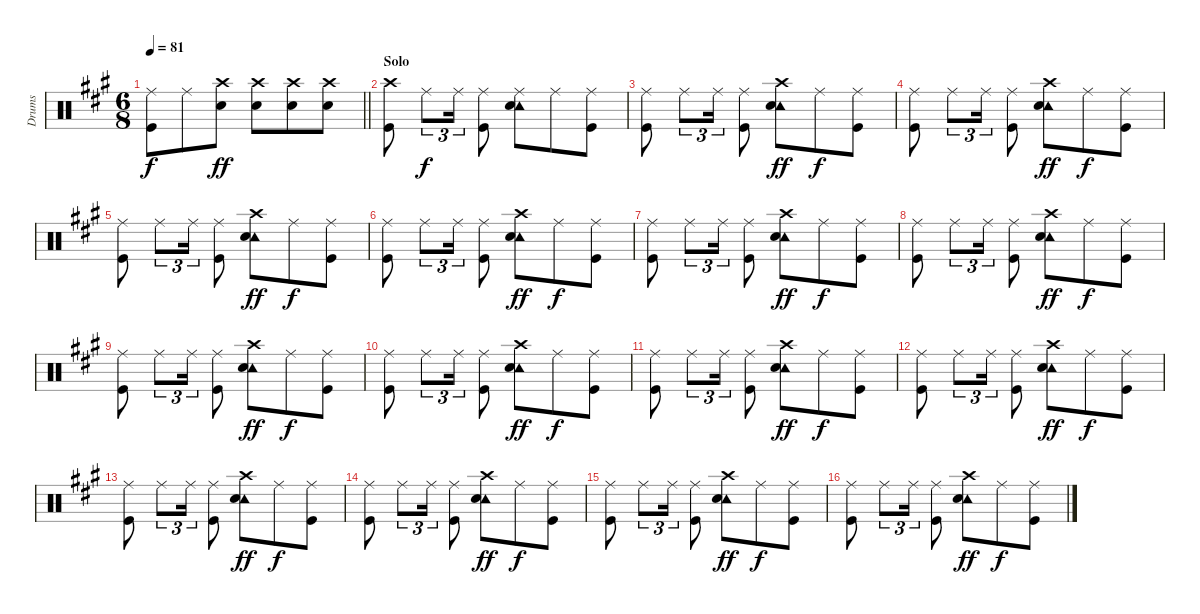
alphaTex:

\track ("Drums" "Drums") {instrument percussion}
\staff {score}
\articulation defaults
\ts (6 8)
\tempo 81
\clef neutral
\barLineRight lightlight
\ks a
("Ride (middle)" "Kick (hit)").8{dy f} "Ride (middle)".8 ("Crash high (hit)" "Snare (hit) 2").8{dy ff} ("Crash high (hit)" "Snare (hit) 2").8 ("Crash high (hit)" "Snare (hit) 2").8 ("Crash high (hit)" "Snare (hit) 2").8 |
\section ("" "Solo")
("Crash high (hit)" "Kick (hit)").8 "Ride (middle)".8{tu (3 2) dy f} "Ride (middle)".16{tu (3 2)} ("Ride (middle)" "Kick (hit)").8 ("Ride (middle)" "Tambourine (hit)" "Snare (hit) 2").8 "Ride (middle)".8 ("Ride (middle)" "Kick (hit)").8 |
("Ride (middle)" "Kick (hit)").8 "Ride (middle)".8{tu (3 2)} "Ride (middle)".16{tu (3 2)} ("Ride (middle)" "Kick (hit)").8 ("Crash high (hit)" "Tambourine (hit)" "Snare (hit) 2").8{dy ff} "Ride (middle)".8{dy f} ("Ride (middle)" "Kick (hit)").8 |
("Ride (middle)" "Kick (hit)").8 "Ride (middle)".8{tu (3 2)} "Ride (middle)".16{tu (3 2)} ("Ride (middle)" "Kick (hit)").8 ("Crash high (hit)" "Tambourine (hit)" "Snare (hit) 2").8{dy ff} "Ride (middle)".8{dy f} ("Ride (middle)" "Kick (hit)").8 |
("Ride (middle)" "Kick (hit)").8 "Ride (middle)".8{tu (3 2)} "Ride (middle)".16{tu (3 2)} ("Ride (middle)" "Kick (hit)").8 ("Crash high (hit)" "Tambourine (hit)" "Snare (hit) 2").8{dy ff} "Ride (middle)".8{dy f} ("Ride (middle)" "Kick (hit)").8 |
("Ride (middle)" "Kick (hit)").8 "Ride (middle)".8{tu (3 2)} "Ride (middle)".16{tu (3 2)} ("Ride (middle)" "Kick (hit)").8 ("Crash high (hit)" "Tambourine (hit)" "Snare (hit) 2").8{dy ff} "Ride (middle)".8{dy f} ("Ride (middle)" "Kick (hit)").8 |
("Ride (middle)" "Kick (hit)").8 "Ride (middle)".8{tu (3 2)} "Ride (middle)".16{tu (3 2)} ("Ride (middle)" "Kick (hit)").8 ("Crash high (hit)" "Tambourine (hit)" "Snare (hit) 2").8{dy ff} "Ride (middle)".8{dy f} ("Ride (middle)" "Kick (hit)").8 |
("Ride (middle)" "Kick (hit)").8 "Ride (middle)".8{tu (3 2)} "Ride (middle)".16{tu (3 2)} ("Ride (middle)" "Kick (hit)").8 ("Crash high (hit)" "Tambourine (hit)" "Snare (hit) 2").8{dy ff} "Ride (middle)".8{dy f} ("Ride (middle)" "Kick (hit)").8 |
("Ride (middle)" "Kick (hit)").8 "Ride (middle)".8{tu (3 2)} "Ride (middle)".16{tu (3 2)} ("Ride (middle)" "Kick (hit)").8 ("Crash high (hit)" "Tambourine (hit)" "Snare (hit) 2").8{dy ff} "Ride (middle)".8{dy f} ("Ride (middle)" "Kick (hit)").8 |
("Ride (middle)" "Kick (hit)").8 "Ride (middle)".8{tu (3 2)} "Ride (middle)".16{tu (3 2)} ("Ride (middle)" "Kick (hit)").8 ("Crash high (hit)" "Tambourine (hit)" "Snare (hit) 2").8{dy ff} "Ride (middle)".8{dy f} ("Ride (middle)" "Kick (hit)").8 |
("Ride (middle)" "Kick (hit)").8 "Ride (middle)".8{tu (3 2)} "Ride (middle)".16{tu (3 2)} ("Ride (middle)" "Kick (hit)").8 ("Crash high (hit)" "Tambourine (hit)" "Snare (hit) 2").8{dy ff} "Ride (middle)".8{dy f} ("Ride (middle)" "Kick (hit)").8 |
("Ride (middle)" "Kick (hit)").8 "Ride (middle)".8{tu (3 2)} "Ride (middle)".16{tu (3 2)} ("Ride (middle)" "Kick (hit)").8 ("Crash high (hit)" "Tambourine (hit)" "Snare (hit) 2").8{dy ff} "Ride (middle)".8{dy f} ("Ride (middle)" "Kick (hit)").8 |
("Ride (middle)" "Kick (hit)").8 "Ride (middle)".8{tu (3 2)} "Ride (middle)".16{tu (3 2)} ("Ride (middle)" "Kick (hit)").8 ("Crash high (hit)" "Tambourine (hit)" "Snare (hit) 2").8{dy ff} "Ride (middle)".8{dy f} ("Ride (middle)" "Kick (hit)").8 |
("Ride (middle)" "Kick (hit)").8 "Ride (middle)".8{tu (3 2)} "Ride (middle)".16{tu (3 2)} ("Ride (middle)" "Kick (hit)").8 ("Crash high (hit)" "Tambourine (hit)" "Snare (hit) 2").8{dy ff} "Ride (middle)".8{dy f} ("Ride (middle)" "Kick (hit)").8 |
("Ride (middle)" "Kick (hit)").8 "Ride (middle)".8{tu (3 2)} "Ride (middle)".16{tu (3 2)} ("Ride (middle)" "Kick (hit)").8 ("Crash high (hit)" "Tambourine (hit)" "Snare (hit) 2").8{dy ff} "Ride (middle)".8{dy f} ("Ride (middle)" "Kick (hit)").8 |
("Ride (middle)" "Kick (hit)").8 "Ride (middle)".8{tu (3 2)} "Ride (middle)".16{tu (3 2)} ("Ride (middle)" "Kick (hit)").8 ("Crash high (hit)" "Tambourine (hit)" "Snare (hit) 2").8{dy ff} "Ride (middle)".8{dy f} ("Ride (middle)" "Kick (hit)").8
